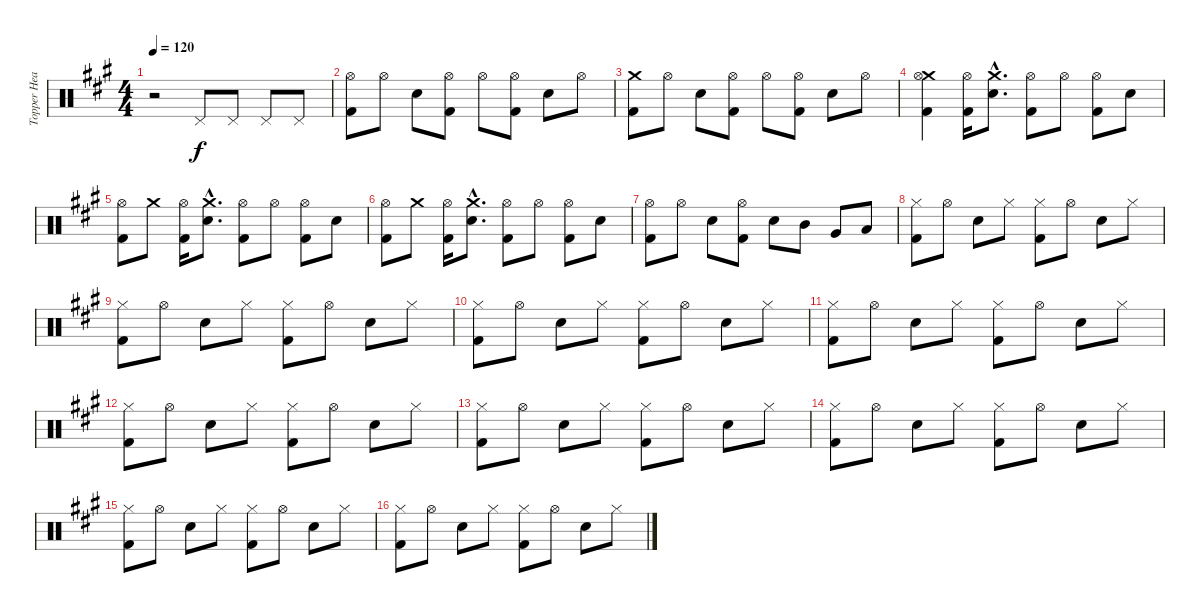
\track ("Topper Headon (Drum)" "Topper Hea") {instrument percussion}
\staff {score}
\articulation defaults
\ts (4 4)
\tempo 120
\clef neutral
\ks a
r.2{dy f} "Pedal Hi-Hat (hit)".8{volume 6} "Pedal Hi-Hat (hit)".8 "Pedal Hi-Hat (hit)".8 "Pedal Hi-Hat (hit)".8 |
("Hi-Hat (open)" "Kick (hit) 2").8{volume 13} "Hi-Hat (open)".8 "Electric Snare (hit)".8 ("Hi-Hat (open)" "Kick (hit) 2").8 "Hi-Hat (open)".8 ("Hi-Hat (open)" "Kick (hit) 2").8 "Electric Snare (hit)".8 "Hi-Hat (open)".8 |
("Crash medium (hit)" "Kick (hit) 2").8 "Hi-Hat (open)".8 "Electric Snare (hit)".8 ("Hi-Hat (open)" "Kick (hit) 2").8 "Hi-Hat (open)".8 ("Hi-Hat (open)" "Kick (hit) 2").8 "Electric Snare (hit)".8 "Hi-Hat (open)".8 |
("Crash medium (hit)" "Hi-Hat (open)" "Kick (hit) 2").4 ("Hi-Hat (open)" "Kick (hit) 2").16 ("Crash medium (hit)"{hac} "Electric Snare (hit)"{hac}).8{d} ("Hi-Hat (open)" "Kick (hit) 2").8 "Hi-Hat (open)".8 ("Hi-Hat (open)" "Kick (hit) 2").8 "Electric Snare (hit)".8 |
("Hi-Hat (open)" "Kick (hit) 2").8 "Crash medium (hit)".8 ("Hi-Hat (open)" "Kick (hit) 2").16 ("Crash medium (hit)"{hac} "Electric Snare (hit)"{hac}).8{d} ("Hi-Hat (open)" "Kick (hit) 2").8 "Hi-Hat (open)".8 ("Hi-Hat (open)" "Kick (hit) 2").8 "Electric Snare (hit)".8 |
("Hi-Hat (open)" "Kick (hit) 2").8 "Crash medium (hit)".8 ("Hi-Hat (open)" "Kick (hit) 2").16 ("Crash medium (hit)"{hac} "Electric Snare (hit)"{hac}).8{d} ("Hi-Hat (open)" "Kick (hit) 2").8 "Hi-Hat (open)".8 ("Hi-Hat (open)" "Kick (hit) 2").8 "Electric Snare (hit)".8 |
("Hi-Hat (open)" "Kick (hit) 2").8 "Hi-Hat (open)".8 "Electric Snare (hit)".8 ("Hi-Hat (open)" "Kick (hit) 2").8 "Electric Snare (hit)".8 "Mid Tom (hit)".8 "Very Low Tom (hit)".8 "Low Floor Tom (hit)".8 |
("Hi-Hat (closed)" "Kick (hit) 2").8 "Hi-Hat (open)".8 "Electric Snare (hit)".8 "Hi-Hat (closed)".8 ("Hi-Hat (closed)" "Kick (hit) 2").8 "Hi-Hat (open)".8 "Electric Snare (hit)".8 "Hi-Hat (closed)".8 |
("Hi-Hat (closed)" "Kick (hit) 2").8 "Hi-Hat (open)".8 "Electric Snare (hit)".8 "Hi-Hat (closed)".8 ("Hi-Hat (closed)" "Kick (hit) 2").8 "Hi-Hat (open)".8 "Electric Snare (hit)".8 "Hi-Hat (closed)".8 |
("Hi-Hat (closed)" "Kick (hit) 2").8 "Hi-Hat (open)".8 "Electric Snare (hit)".8 "Hi-Hat (closed)".8 ("Hi-Hat (closed)" "Kick (hit) 2").8 "Hi-Hat (open)".8 "Electric Snare (hit)".8 "Hi-Hat (closed)".8 |
("Hi-Hat (closed)" "Kick (hit) 2").8 "Hi-Hat (open)".8 "Electric Snare (hit)".8 "Hi-Hat (closed)".8 ("Hi-Hat (closed)" "Kick (hit) 2").8 "Hi-Hat (open)".8 "Electric Snare (hit)".8 "Hi-Hat (closed)".8 |
("Hi-Hat (closed)" "Kick (hit) 2").8 "Hi-Hat (open)".8 "Electric Snare (hit)".8 "Hi-Hat (closed)".8 ("Hi-Hat (closed)" "Kick (hit) 2").8 "Hi-Hat (open)".8 "Electric Snare (hit)".8 "Hi-Hat (closed)".8 |
("Hi-Hat (closed)" "Kick (hit) 2").8 "Hi-Hat (open)".8 "Electric Snare (hit)".8 "Hi-Hat (closed)".8 ("Hi-Hat (closed)" "Kick (hit) 2").8 "Hi-Hat (open)".8 "Electric Snare (hit)".8 "Hi-Hat (closed)".8 |
("Hi-Hat (closed)" "Kick (hit) 2").8 "Hi-Hat (open)".8 "Electric Snare (hit)".8 "Hi-Hat (closed)".8 ("Hi-Hat (closed)" "Kick (hit) 2").8 "Hi-Hat (open)".8 "Electric Snare (hit)".8 "Hi-Hat (closed)".8 |
("Hi-Hat (closed)" "Kick (hit) 2").8 "Hi-Hat (open)".8 "Electric Snare (hit)".8 "Hi-Hat (closed)".8 ("Hi-Hat (closed)" "Kick (hit) 2").8 "Hi-Hat (open)".8 "Electric Snare (hit)".8 "Hi-Hat (closed)".8 |
("Hi-Hat (closed)" "Kick (hit) 2").8 "Hi-Hat (open)".8 "Electric Snare (hit)".8 "Hi-Hat (closed)".8 ("Hi-Hat (closed)" "Kick (hit) 2").8 "Hi-Hat (open)".8 "Electric Snare (hit)".8 "Hi-Hat (closed)".8
